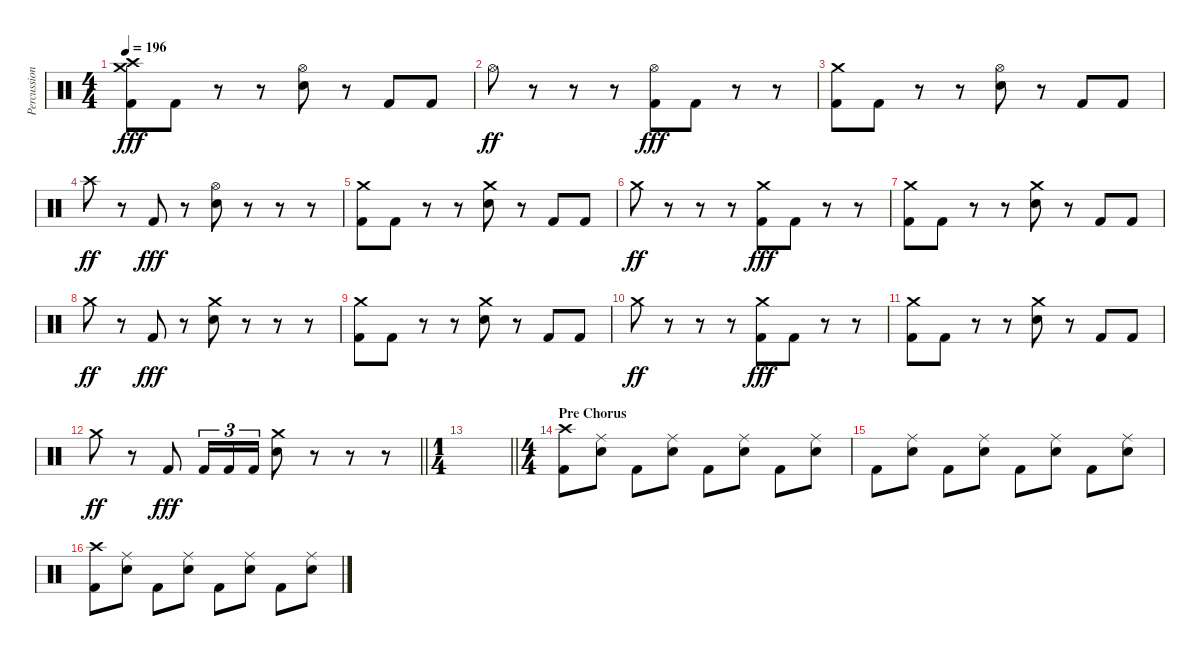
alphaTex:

\track ("Percussion" "Percussion") {instrument percussion}
\staff {score}
\articulation defaults
\ts (4 4)
\tempo 196
\clef neutral
\ks c
("Crash medium (hit)" "Crash high (hit)" "Kick (hit) 2").8{dy fff} "Kick (hit) 2".8 r.8 r.8 ("Hi-Hat (open)" "Electric Snare (hit)").8 r.8 "Kick (hit) 2".8 "Kick (hit) 2".8 |
"Hi-Hat (open)".8{dy ff} r.8 r.8 r.8 ("Hi-Hat (open)" "Kick (hit) 2").8{dy fff} "Kick (hit) 2".8 r.8 r.8 |
("Crash medium (hit)" "Kick (hit) 2").8 "Kick (hit) 2".8 r.8 r.8 ("Hi-Hat (open)" "Electric Snare (hit)").8 r.8 "Kick (hit) 2".8 "Kick (hit) 2".8 |
"Crash high (hit)".8{dy ff} r.8 "Kick (hit) 2".8{dy fff} r.8 ("Hi-Hat (open)" "Electric Snare (hit)").8 r.8 r.8 r.8 |
("Crash medium (hit)" "Kick (hit) 2").8 "Kick (hit) 2".8 r.8 r.8 ("Crash medium (hit)" "Electric Snare (hit)").8 r.8 "Kick (hit) 2".8 "Kick (hit) 2".8 |
"Crash medium (hit)".8{dy ff} r.8 r.8 r.8 ("Crash medium (hit)" "Kick (hit) 2").8{dy fff} "Kick (hit) 2".8 r.8 r.8 |
("Crash medium (hit)" "Kick (hit) 2").8 "Kick (hit) 2".8 r.8 r.8 ("Crash medium (hit)" "Electric Snare (hit)").8 r.8 "Kick (hit) 2".8 "Kick (hit) 2".8 |
"Crash medium (hit)".8{dy ff} r.8 "Kick (hit) 2".8{dy fff} r.8 ("Crash medium (hit)" "Electric Snare (hit)").8 r.8 r.8 r.8 |
("Crash medium (hit)" "Kick (hit) 2").8 "Kick (hit) 2".8 r.8 r.8 ("Crash medium (hit)" "Electric Snare (hit)").8 r.8 "Kick (hit) 2".8 "Kick (hit) 2".8 |
"Crash medium (hit)".8{dy ff} r.8 r.8 r.8 ("Crash medium (hit)" "Kick (hit) 2").8{dy fff} "Kick (hit) 2".8 r.8 r.8 |
("Crash medium (hit)" "Kick (hit) 2").8 "Kick (hit) 2".8 r.8 r.8 ("Crash medium (hit)" "Electric Snare (hit)").8 r.8 "Kick (hit) 2".8 "Kick (hit) 2".8 |
\barLineRight lightlight "Crash medium (hit)".8{dy ff}
r.8 "Kick (hit) 2".8{dy fff} "Kick (hit) 2".16{tu (3 2)} "Kick (hit) 2".16{tu (3 2)} "Kick (hit) 2".16{tu (3 2)} ("Crash medium (hit)" "Electric Snare (hit)").8 r.8 r.8 r.8 |
\ts (1 4)
\barLineRight lightlight
|
\ts (4 4)
\section ("" "Pre Chorus")
("Crash high (hit)" "Kick (hit) 2").8 ("Ride (middle)" "Electric Snare (hit)").8 "Kick (hit) 2".8 ("Ride (middle)" "Electric Snare (hit)").8 "Kick (hit) 2".8 ("Ride (middle)" "Electric Snare (hit)").8 "Kick (hit) 2".8 ("Ride (middle)" "Electric Snare (hit)").8 |
"Kick (hit) 2".8 ("Ride (middle)" "Electric Snare (hit)").8 "Kick (hit) 2".8 ("Ride (middle)" "Electric Snare (hit)").8 "Kick (hit) 2".8 ("Ride (middle)" "Electric Snare (hit)").8 "Kick (hit) 2".8 ("Ride (middle)" "Electric Snare (hit)").8 |
("Crash high (hit)" "Kick (hit) 2").8 ("Ride (middle)" "Electric Snare (hit)").8 "Kick (hit) 2".8 ("Ride (middle)" "Electric Snare (hit)").8 "Kick (hit) 2".8 ("Ride (middle)" "Electric Snare (hit)").8 "Kick (hit) 2".8 ("Ride (middle)" "Electric Snare (hit)").8
